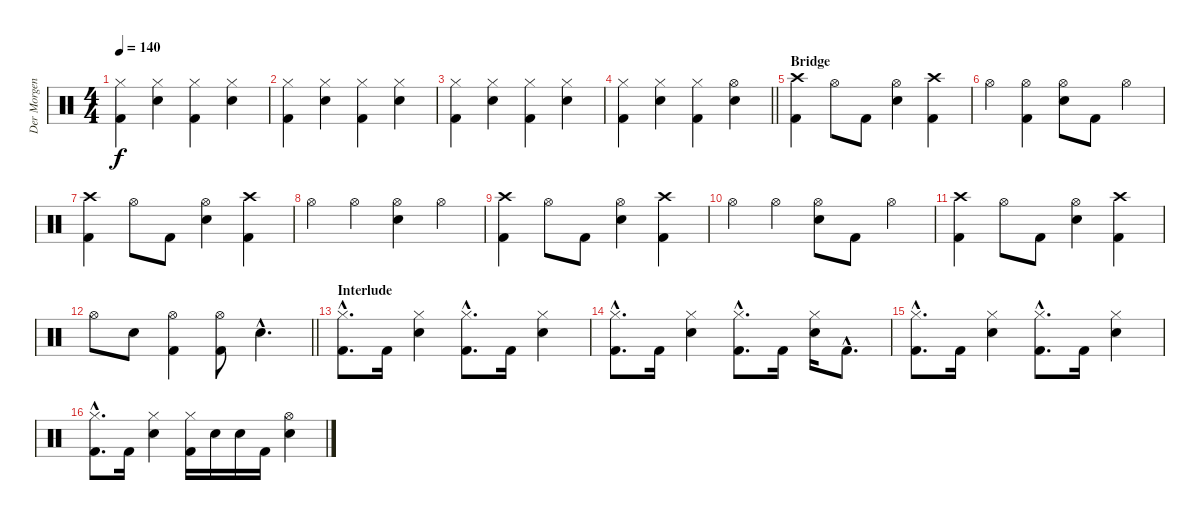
\track ("Der Morgenstern" "Der Morgen") {instrument percussion}
\staff {score}
\articulation defaults
\ts (4 4)
\tempo 140
\clef neutral
\ks c
("Hi-Hat (closed)" "Kick (hit) 2").4{dy f} ("Hi-Hat (closed)" "Snare (hit) 2").4 ("Hi-Hat (closed)" "Kick (hit) 2").4 ("Hi-Hat (closed)" "Snare (hit) 2").4 |
("Hi-Hat (closed)" "Kick (hit) 2").4 ("Hi-Hat (closed)" "Snare (hit) 2").4 ("Hi-Hat (closed)" "Kick (hit) 2").4 ("Hi-Hat (closed)" "Snare (hit) 2").4 |
("Hi-Hat (closed)" "Kick (hit) 2").4 ("Hi-Hat (closed)" "Snare (hit) 2").4 ("Hi-Hat (closed)" "Kick (hit) 2").4 ("Hi-Hat (closed)" "Snare (hit) 2").4 |
\barLineRight lightlight
("Hi-Hat (closed)" "Kick (hit) 2").4 ("Hi-Hat (closed)" "Snare (hit) 2").4 ("Hi-Hat (closed)" "Kick (hit) 2").4 ("Hi-Hat (open)" "Snare (hit) 2").4 |
\section ("" "Bridge")
("Crash high (hit)" "Kick (hit) 2").4 "Hi-Hat (open)".8 "Kick (hit) 2".8 ("Hi-Hat (open)" "Snare (hit) 2").4 ("Crash high (hit)" "Kick (hit) 2").4 |
"Hi-Hat (open)".4 ("Hi-Hat (open)" "Kick (hit) 2").4 ("Hi-Hat (open)" "Snare (hit) 2").8 "Kick (hit) 2".8 "Hi-Hat (open)".4 |
("Crash high (hit)" "Kick (hit) 2").4 "Hi-Hat (open)".8 "Kick (hit) 2".8 ("Hi-Hat (open)" "Snare (hit) 2").4 ("Crash high (hit)" "Kick (hit) 2").4 |
"Hi-Hat (open)".4 "Hi-Hat (open)".4 ("Hi-Hat (open)" "Snare (hit) 2").4 "Hi-Hat (open)".4 |
("Crash high (hit)" "Kick (hit) 2").4 "Hi-Hat (open)".8 "Kick (hit) 2".8 ("Hi-Hat (open)" "Snare (hit) 2").4 ("Crash high (hit)" "Kick (hit) 2").4 |
"Hi-Hat (open)".4 "Hi-Hat (open)".4 ("Hi-Hat (open)" "Snare (hit) 2").8 "Kick (hit) 2".8 "Hi-Hat (open)".4 |
("Crash high (hit)" "Kick (hit) 2").4 "Hi-Hat (open)".8 "Kick (hit) 2".8 ("Hi-Hat (open)" "Snare (hit) 2").4 ("Crash high (hit)" "Kick (hit) 2").4 |
\barLineRight lightlight "Hi-Hat (open)".8 "Snare (hit) 2".8
("Hi-Hat (open)" "Kick (hit) 2").4 ("Hi-Hat (open)" "Kick (hit) 2").8 "Snare (hit) 2"{hac}.4{d} |
\section ("" "Interlude")
("Hi-Hat (closed)"{hac} "Kick (hit) 2"{hac}).8{d} "Kick (hit) 2".16 ("Hi-Hat (closed)" "Snare (hit) 2").4 ("Hi-Hat (closed)"{hac} "Kick (hit) 2"{hac}).8{d} "Kick (hit) 2".16 ("Hi-Hat (closed)" "Snare (hit) 2").4 |
("Hi-Hat (closed)"{hac} "Kick (hit) 2"{hac}).8{d} "Kick (hit) 2".16 ("Hi-Hat (closed)" "Snare (hit) 2").4 ("Hi-Hat (closed)"{hac} "Kick (hit) 2"{hac}).8{d} "Kick (hit) 2".16 ("Hi-Hat (closed)" "Snare (hit) 2").16 "Kick (hit) 2"{hac}.8{d} |
("Hi-Hat (closed)"{hac} "Kick (hit) 2"{hac}).8{d} "Kick (hit) 2".16 ("Hi-Hat (closed)" "Snare (hit) 2").4 ("Hi-Hat (closed)"{hac} "Kick (hit) 2"{hac}).8{d} "Kick (hit) 2".16 ("Hi-Hat (closed)" "Snare (hit) 2").4 |
("Hi-Hat (closed)"{hac} "Kick (hit) 2"{hac}).8{d} "Kick (hit) 2".16 ("Hi-Hat (closed)" "Snare (hit) 2").4 ("Hi-Hat (closed)" "Kick (hit) 2").16 "Snare (hit) 2".16 "Snare (hit) 2".16 "Kick (hit) 2".16 ("Hi-Hat (open)" "Snare (hit) 2").4
